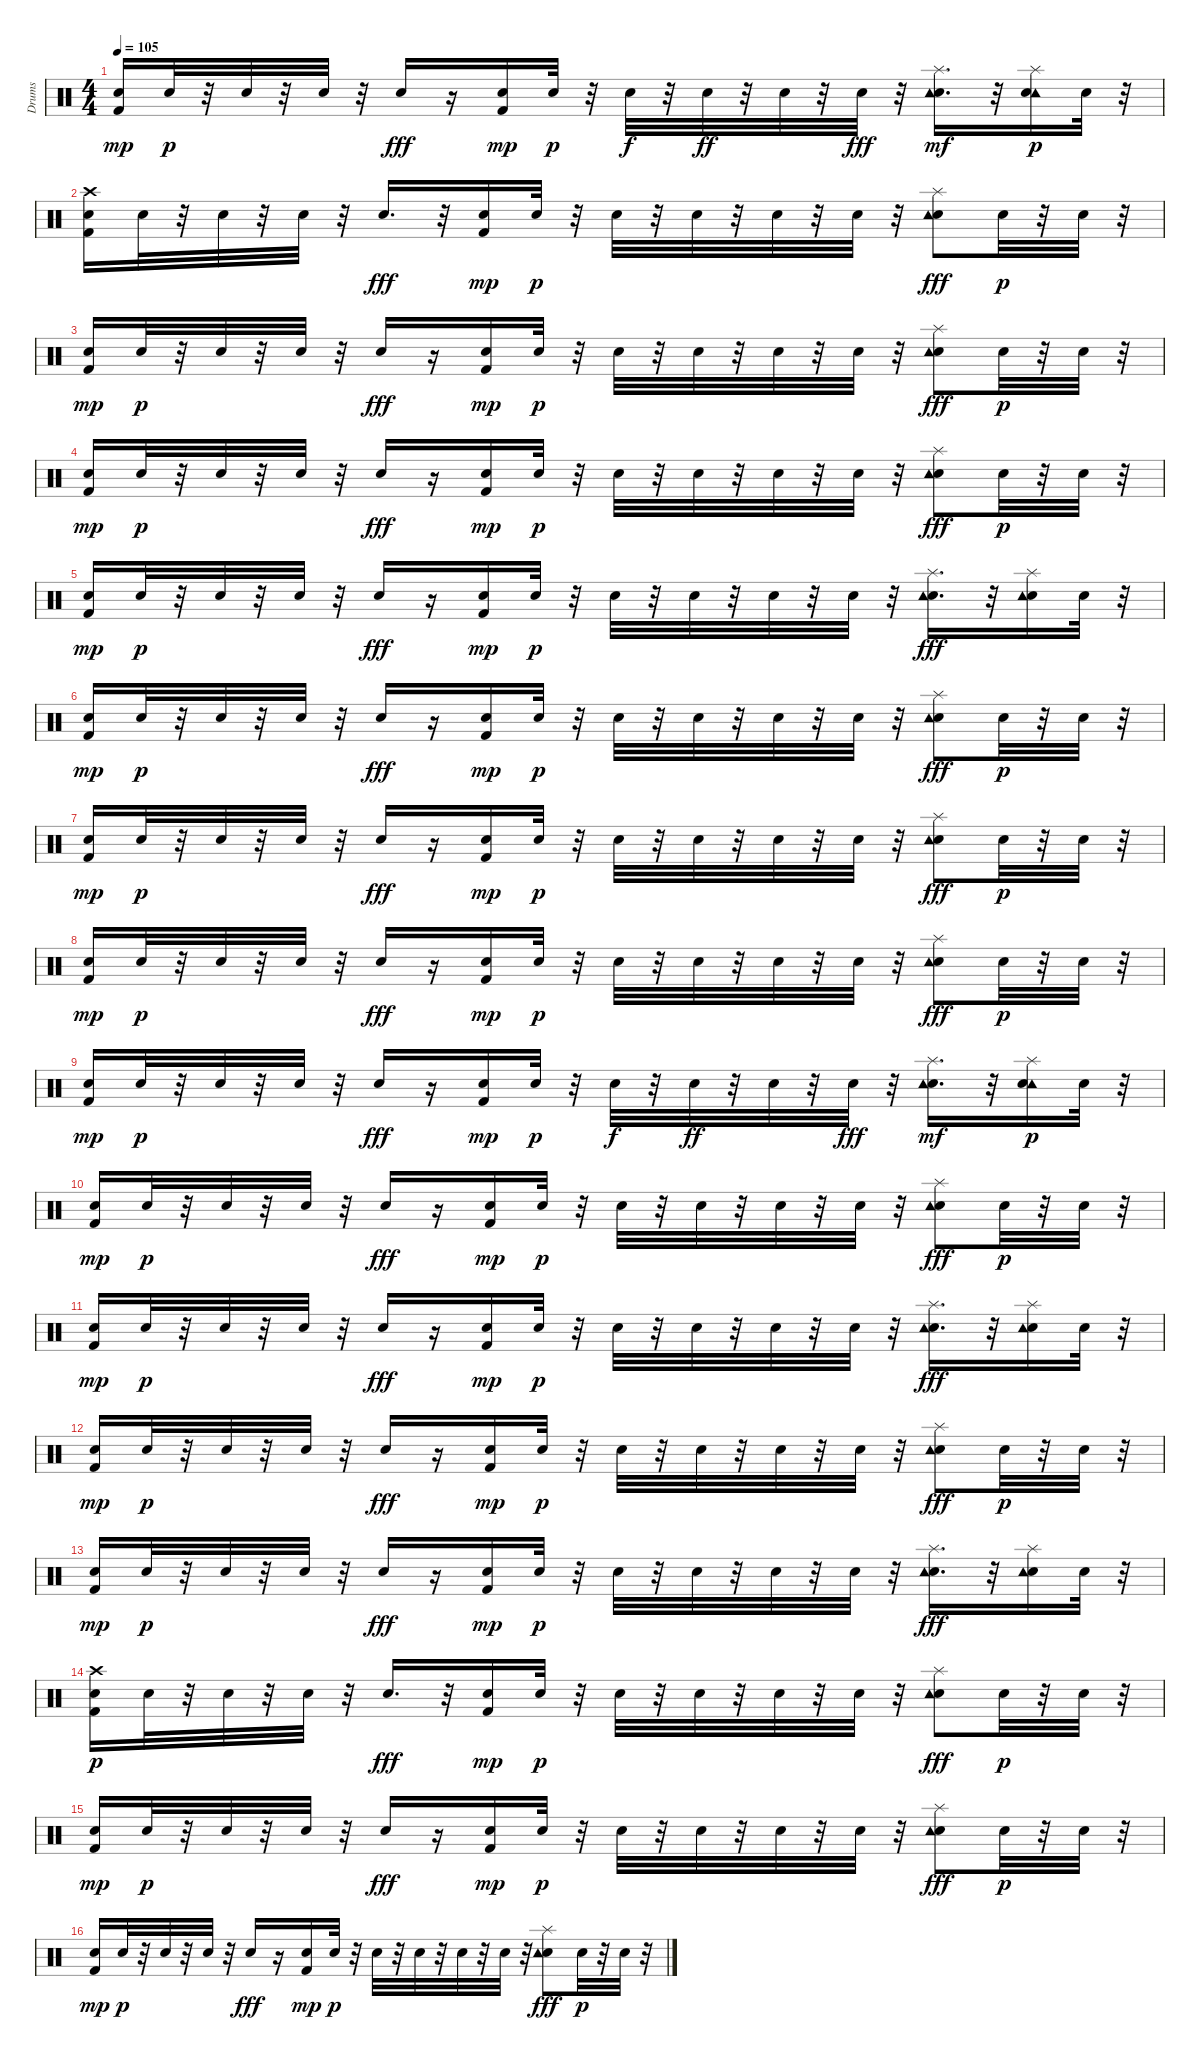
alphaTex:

\track ("Drums" "Drums") {instrument percussion}
\staff {score}
\articulation defaults
\ts (4 4)
\tempo 105
\clef neutral
\ks c
("Snare (hit) 2" "Kick (hit) 2").16{dy mp} "Snare (hit) 2".32{dy p} r.32 "Snare (hit) 2".32 r.32 "Snare (hit) 2".32 r.32 "Snare (hit) 2".16{dy fff} r.16 ("Snare (hit) 2" "Kick (hit) 2").16{dy mp} "Snare (hit) 2".32{dy p} r.32 "Snare (hit) 2".32{dy f} r.32 "Snare (hit) 2".32{dy ff} r.32 "Snare (hit) 2".32 r.32 "Snare (hit) 2".32{dy fff} r.32 ("Snare (hit) 2" "Splash (hit)" "Tambourine (hit)").16{d dy mf} r.32 ("Tambourine (hit)" "Splash (hit)" "Snare (hit) 2").16{dy p} "Snare (hit) 2".32 r.32 |
("Crash high (hit)" "Kick (hit) 2" "Snare (hit) 2").16 "Snare (hit) 2".32 r.32 "Snare (hit) 2".32 r.32 "Snare (hit) 2".32 r.32 "Snare (hit) 2".16{d dy fff} r.32 ("Snare (hit) 2" "Kick (hit) 2").16{dy mp} "Snare (hit) 2".32{dy p} r.32 "Snare (hit) 2".32 r.32 "Snare (hit) 2".32 r.32 "Snare (hit) 2".32 r.32 "Snare (hit) 2".32 r.32 ("Snare (hit) 2" "Splash (hit)" "Tambourine (hit)").8{dy fff} "Snare (hit) 2".32{dy p} r.32 "Snare (hit) 2".32 r.32 |
("Snare (hit) 2" "Kick (hit) 2").16{dy mp} "Snare (hit) 2".32{dy p} r.32 "Snare (hit) 2".32 r.32 "Snare (hit) 2".32 r.32 "Snare (hit) 2".16{dy fff} r.16 ("Snare (hit) 2" "Kick (hit) 2").16{dy mp} "Snare (hit) 2".32{dy p} r.32 "Snare (hit) 2".32 r.32 "Snare (hit) 2".32 r.32 "Snare (hit) 2".32 r.32 "Snare (hit) 2".32 r.32 ("Snare (hit) 2" "Splash (hit)" "Tambourine (hit)").8{dy fff} "Snare (hit) 2".32{dy p} r.32 "Snare (hit) 2".32 r.32 |
("Snare (hit) 2" "Kick (hit) 2").16{dy mp} "Snare (hit) 2".32{dy p} r.32 "Snare (hit) 2".32 r.32 "Snare (hit) 2".32 r.32 "Snare (hit) 2".16{dy fff} r.16 ("Snare (hit) 2" "Kick (hit) 2").16{dy mp} "Snare (hit) 2".32{dy p} r.32 "Snare (hit) 2".32 r.32 "Snare (hit) 2".32 r.32 "Snare (hit) 2".32 r.32 "Snare (hit) 2".32 r.32 ("Snare (hit) 2" "Splash (hit)" "Tambourine (hit)").8{dy fff} "Snare (hit) 2".32{dy p} r.32 "Snare (hit) 2".32 r.32 |
("Snare (hit) 2" "Kick (hit) 2").16{dy mp} "Snare (hit) 2".32{dy p} r.32 "Snare (hit) 2".32 r.32 "Snare (hit) 2".32 r.32 "Snare (hit) 2".16{dy fff} r.16 ("Snare (hit) 2" "Kick (hit) 2").16{dy mp} "Snare (hit) 2".32{dy p} r.32 "Snare (hit) 2".32 r.32 "Snare (hit) 2".32 r.32 "Snare (hit) 2".32 r.32 "Snare (hit) 2".32 r.32 ("Snare (hit) 2" "Splash (hit)" "Tambourine (hit)").16{d dy fff} r.32 ("Snare (hit) 2" "Splash (hit)" "Tambourine (hit)").16 "Snare (hit) 2".32 r.32 |
("Snare (hit) 2" "Kick (hit) 2").16{dy mp} "Snare (hit) 2".32{dy p} r.32 "Snare (hit) 2".32 r.32 "Snare (hit) 2".32 r.32 "Snare (hit) 2".16{dy fff} r.16 ("Snare (hit) 2" "Kick (hit) 2").16{dy mp} "Snare (hit) 2".32{dy p} r.32 "Snare (hit) 2".32 r.32 "Snare (hit) 2".32 r.32 "Snare (hit) 2".32 r.32 "Snare (hit) 2".32 r.32 ("Snare (hit) 2" "Splash (hit)" "Tambourine (hit)").8{dy fff} "Snare (hit) 2".32{dy p} r.32 "Snare (hit) 2".32 r.32 |
("Snare (hit) 2" "Kick (hit) 2").16{dy mp} "Snare (hit) 2".32{dy p} r.32 "Snare (hit) 2".32 r.32 "Snare (hit) 2".32 r.32 "Snare (hit) 2".16{dy fff} r.16 ("Snare (hit) 2" "Kick (hit) 2").16{dy mp} "Snare (hit) 2".32{dy p} r.32 "Snare (hit) 2".32 r.32 "Snare (hit) 2".32 r.32 "Snare (hit) 2".32 r.32 "Snare (hit) 2".32 r.32 ("Snare (hit) 2" "Splash (hit)" "Tambourine (hit)").8{dy fff} "Snare (hit) 2".32{dy p} r.32 "Snare (hit) 2".32 r.32 |
("Snare (hit) 2" "Kick (hit) 2").16{dy mp} "Snare (hit) 2".32{dy p} r.32 "Snare (hit) 2".32 r.32 "Snare (hit) 2".32 r.32 "Snare (hit) 2".16{dy fff} r.16 ("Snare (hit) 2" "Kick (hit) 2").16{dy mp} "Snare (hit) 2".32{dy p} r.32 "Snare (hit) 2".32 r.32 "Snare (hit) 2".32 r.32 "Snare (hit) 2".32 r.32 "Snare (hit) 2".32 r.32 ("Snare (hit) 2" "Splash (hit)" "Tambourine (hit)").8{dy fff} "Snare (hit) 2".32{dy p} r.32 "Snare (hit) 2".32 r.32 |
("Snare (hit) 2" "Kick (hit) 2").16{dy mp} "Snare (hit) 2".32{dy p} r.32 "Snare (hit) 2".32 r.32 "Snare (hit) 2".32 r.32 "Snare (hit) 2".16{dy fff} r.16 ("Snare (hit) 2" "Kick (hit) 2").16{dy mp} "Snare (hit) 2".32{dy p} r.32 "Snare (hit) 2".32{dy f} r.32 "Snare (hit) 2".32{dy ff} r.32 "Snare (hit) 2".32 r.32 "Snare (hit) 2".32{dy fff} r.32 ("Snare (hit) 2" "Splash (hit)" "Tambourine (hit)").16{d dy mf} r.32 ("Tambourine (hit)" "Splash (hit)" "Snare (hit) 2").16{dy p} "Snare (hit) 2".32 r.32 |
("Snare (hit) 2" "Kick (hit) 2").16{dy mp} "Snare (hit) 2".32{dy p} r.32 "Snare (hit) 2".32 r.32 "Snare (hit) 2".32 r.32 "Snare (hit) 2".16{dy fff} r.16 ("Snare (hit) 2" "Kick (hit) 2").16{dy mp} "Snare (hit) 2".32{dy p} r.32 "Snare (hit) 2".32 r.32 "Snare (hit) 2".32 r.32 "Snare (hit) 2".32 r.32 "Snare (hit) 2".32 r.32 ("Snare (hit) 2" "Splash (hit)" "Tambourine (hit)").8{dy fff} "Snare (hit) 2".32{dy p} r.32 "Snare (hit) 2".32 r.32 |
("Snare (hit) 2" "Kick (hit) 2").16{dy mp} "Snare (hit) 2".32{dy p} r.32 "Snare (hit) 2".32 r.32 "Snare (hit) 2".32 r.32 "Snare (hit) 2".16{dy fff} r.16 ("Snare (hit) 2" "Kick (hit) 2").16{dy mp} "Snare (hit) 2".32{dy p} r.32 "Snare (hit) 2".32 r.32 "Snare (hit) 2".32 r.32 "Snare (hit) 2".32 r.32 "Snare (hit) 2".32 r.32 ("Snare (hit) 2" "Splash (hit)" "Tambourine (hit)").16{d dy fff} r.32 ("Snare (hit) 2" "Splash (hit)" "Tambourine (hit)").16 "Snare (hit) 2".32 r.32 |
("Snare (hit) 2" "Kick (hit) 2").16{dy mp} "Snare (hit) 2".32{dy p} r.32 "Snare (hit) 2".32 r.32 "Snare (hit) 2".32 r.32 "Snare (hit) 2".16{dy fff} r.16 ("Snare (hit) 2" "Kick (hit) 2").16{dy mp} "Snare (hit) 2".32{dy p} r.32 "Snare (hit) 2".32 r.32 "Snare (hit) 2".32 r.32 "Snare (hit) 2".32 r.32 "Snare (hit) 2".32 r.32 ("Snare (hit) 2" "Splash (hit)" "Tambourine (hit)").8{dy fff} "Snare (hit) 2".32{dy p} r.32 "Snare (hit) 2".32 r.32 |
("Snare (hit) 2" "Kick (hit) 2").16{dy mp} "Snare (hit) 2".32{dy p} r.32 "Snare (hit) 2".32 r.32 "Snare (hit) 2".32 r.32 "Snare (hit) 2".16{dy fff} r.16 ("Snare (hit) 2" "Kick (hit) 2").16{dy mp} "Snare (hit) 2".32{dy p} r.32 "Snare (hit) 2".32 r.32 "Snare (hit) 2".32 r.32 "Snare (hit) 2".32 r.32 "Snare (hit) 2".32 r.32 ("Snare (hit) 2" "Splash (hit)" "Tambourine (hit)").16{d dy fff} r.32 ("Snare (hit) 2" "Splash (hit)" "Tambourine (hit)").16 "Snare (hit) 2".32 r.32 |
("Crash high (hit)" "Kick (hit) 2" "Snare (hit) 2").16{dy p} "Snare (hit) 2".32 r.32 "Snare (hit) 2".32 r.32 "Snare (hit) 2".32 r.32 "Snare (hit) 2".16{d dy fff} r.32 ("Snare (hit) 2" "Kick (hit) 2").16{dy mp} "Snare (hit) 2".32{dy p} r.32 "Snare (hit) 2".32 r.32 "Snare (hit) 2".32 r.32 "Snare (hit) 2".32 r.32 "Snare (hit) 2".32 r.32 ("Snare (hit) 2" "Splash (hit)" "Tambourine (hit)").8{dy fff} "Snare (hit) 2".32{dy p} r.32 "Snare (hit) 2".32 r.32 |
("Snare (hit) 2" "Kick (hit) 2").16{dy mp} "Snare (hit) 2".32{dy p} r.32 "Snare (hit) 2".32 r.32 "Snare (hit) 2".32 r.32 "Snare (hit) 2".16{dy fff} r.16 ("Snare (hit) 2" "Kick (hit) 2").16{dy mp} "Snare (hit) 2".32{dy p} r.32 "Snare (hit) 2".32 r.32 "Snare (hit) 2".32 r.32 "Snare (hit) 2".32 r.32 "Snare (hit) 2".32 r.32 ("Snare (hit) 2" "Splash (hit)" "Tambourine (hit)").8{dy fff} "Snare (hit) 2".32{dy p} r.32 "Snare (hit) 2".32 r.32 |
("Snare (hit) 2" "Kick (hit) 2").16{dy mp} "Snare (hit) 2".32{dy p} r.32 "Snare (hit) 2".32 r.32 "Snare (hit) 2".32 r.32 "Snare (hit) 2".16{dy fff} r.16 ("Snare (hit) 2" "Kick (hit) 2").16{dy mp} "Snare (hit) 2".32{dy p} r.32 "Snare (hit) 2".32 r.32 "Snare (hit) 2".32 r.32 "Snare (hit) 2".32 r.32 "Snare (hit) 2".32 r.32 ("Snare (hit) 2" "Splash (hit)" "Tambourine (hit)").8{dy fff} "Snare (hit) 2".32{dy p} r.32 "Snare (hit) 2".32 r.32
